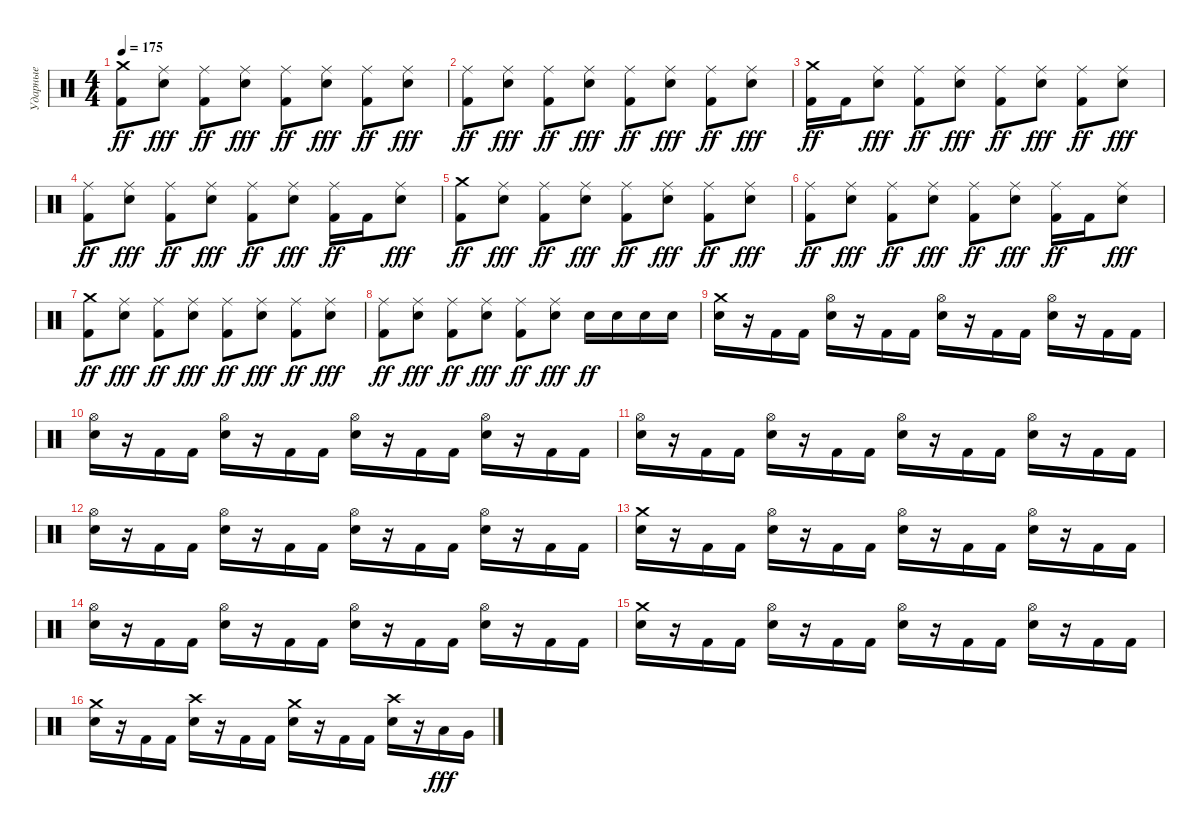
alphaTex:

\track ("Ударные" "Ударные") {instrument percussion}
\staff {score}
\articulation defaults
\ts (4 4)
\tempo 175
\clef neutral
\ks c
("Kick (hit) 2" "Crash medium (hit)").8{dy ff} ("Electric Snare (hit)" "Ride (middle)").8{dy fff} ("Kick (hit) 2" "Ride (middle)").8{dy ff} ("Electric Snare (hit)" "Ride (middle)").8{dy fff} ("Kick (hit) 2" "Ride (middle)").8{dy ff} ("Electric Snare (hit)" "Ride (middle)").8{dy fff} ("Kick (hit) 2" "Ride (middle)").8{dy ff} ("Electric Snare (hit)" "Ride (middle)").8{dy fff} |
("Kick (hit) 2" "Ride (middle)").8{dy ff} ("Electric Snare (hit)" "Ride (middle)").8{dy fff} ("Kick (hit) 2" "Ride (middle)").8{dy ff} ("Electric Snare (hit)" "Ride (middle)").8{dy fff} ("Kick (hit) 2" "Ride (middle)").8{dy ff} ("Electric Snare (hit)" "Ride (middle)").8{dy fff} ("Kick (hit) 2" "Ride (middle)").8{dy ff} ("Electric Snare (hit)" "Ride (middle)").8{dy fff} |
("Kick (hit) 2" "Crash medium (hit)").16{dy ff} "Kick (hit) 2".16 ("Electric Snare (hit)" "Ride (middle)").8{dy fff} ("Kick (hit) 2" "Ride (middle)").8{dy ff} ("Electric Snare (hit)" "Ride (middle)").8{dy fff} ("Kick (hit) 2" "Ride (middle)").8{dy ff} ("Electric Snare (hit)" "Ride (middle)").8{dy fff} ("Kick (hit) 2" "Ride (middle)").8{dy ff} ("Electric Snare (hit)" "Ride (middle)").8{dy fff} |
("Kick (hit) 2" "Ride (middle)").8{dy ff} ("Electric Snare (hit)" "Ride (middle)").8{dy fff} ("Kick (hit) 2" "Ride (middle)").8{dy ff} ("Electric Snare (hit)" "Ride (middle)").8{dy fff} ("Kick (hit) 2" "Ride (middle)").8{dy ff} ("Electric Snare (hit)" "Ride (middle)").8{dy fff} ("Kick (hit) 2" "Ride (middle)").16{dy ff} "Kick (hit) 2".16 ("Electric Snare (hit)" "Ride (middle)").8{dy fff} |
("Kick (hit) 2" "Crash medium (hit)").8{dy ff} ("Electric Snare (hit)" "Ride (middle)").8{dy fff} ("Kick (hit) 2" "Ride (middle)").8{dy ff} ("Electric Snare (hit)" "Ride (middle)").8{dy fff} ("Kick (hit) 2" "Ride (middle)").8{dy ff} ("Electric Snare (hit)" "Ride (middle)").8{dy fff} ("Kick (hit) 2" "Ride (middle)").8{dy ff} ("Electric Snare (hit)" "Ride (middle)").8{dy fff} |
("Kick (hit) 2" "Ride (middle)").8{dy ff} ("Electric Snare (hit)" "Ride (middle)").8{dy fff} ("Kick (hit) 2" "Ride (middle)").8{dy ff} ("Electric Snare (hit)" "Ride (middle)").8{dy fff} ("Kick (hit) 2" "Ride (middle)").8{dy ff} ("Electric Snare (hit)" "Ride (middle)").8{dy fff} ("Kick (hit) 2" "Ride (middle)").16{dy ff} "Kick (hit) 2".16 ("Electric Snare (hit)" "Ride (middle)").8{dy fff} |
("Kick (hit) 2" "Crash medium (hit)").8{dy ff} ("Electric Snare (hit)" "Ride (middle)").8{dy fff} ("Kick (hit) 2" "Ride (middle)").8{dy ff} ("Electric Snare (hit)" "Ride (middle)").8{dy fff} ("Kick (hit) 2" "Ride (middle)").8{dy ff} ("Electric Snare (hit)" "Ride (middle)").8{dy fff} ("Kick (hit) 2" "Ride (middle)").8{dy ff} ("Electric Snare (hit)" "Ride (middle)").8{dy fff} |
("Kick (hit) 2" "Ride (middle)").8{dy ff} ("Electric Snare (hit)" "Ride (middle)").8{dy fff} ("Kick (hit) 2" "Ride (middle)").8{dy ff} ("Electric Snare (hit)" "Ride (middle)").8{dy fff} ("Kick (hit) 2" "Ride (middle)").8{dy ff} ("Electric Snare (hit)" "Ride (middle)").8{dy fff} "Electric Snare (hit)".16{dy ff} "Electric Snare (hit)".16 "Electric Snare (hit)".16 "Electric Snare (hit)".16 |
("Electric Snare (hit)" "Crash medium (hit)").16 r.16 "Kick (hit) 2".16 "Kick (hit) 2".16 ("Electric Snare (hit)" "Hi-Hat (open)").16 r.16 "Kick (hit) 2".16 "Kick (hit) 2".16 ("Electric Snare (hit)" "Hi-Hat (open)").16 r.16 "Kick (hit) 2".16 "Kick (hit) 2".16 ("Electric Snare (hit)" "Hi-Hat (open)").16 r.16 "Kick (hit) 2".16 "Kick (hit) 2".16 |
("Electric Snare (hit)" "Hi-Hat (open)").16 r.16 "Kick (hit) 2".16 "Kick (hit) 2".16 ("Electric Snare (hit)" "Hi-Hat (open)").16 r.16 "Kick (hit) 2".16 "Kick (hit) 2".16 ("Electric Snare (hit)" "Hi-Hat (open)").16 r.16 "Kick (hit) 2".16 "Kick (hit) 2".16 ("Electric Snare (hit)" "Hi-Hat (open)").16 r.16 "Kick (hit) 2".16 "Kick (hit) 2".16 |
("Electric Snare (hit)" "Hi-Hat (open)").16 r.16 "Kick (hit) 2".16 "Kick (hit) 2".16 ("Electric Snare (hit)" "Hi-Hat (open)").16 r.16 "Kick (hit) 2".16 "Kick (hit) 2".16 ("Electric Snare (hit)" "Hi-Hat (open)").16 r.16 "Kick (hit) 2".16 "Kick (hit) 2".16 ("Electric Snare (hit)" "Hi-Hat (open)").16 r.16 "Kick (hit) 2".16 "Kick (hit) 2".16 |
("Electric Snare (hit)" "Hi-Hat (open)").16 r.16 "Kick (hit) 2".16 "Kick (hit) 2".16 ("Electric Snare (hit)" "Hi-Hat (open)").16 r.16 "Kick (hit) 2".16 "Kick (hit) 2".16 ("Electric Snare (hit)" "Hi-Hat (open)").16 r.16 "Kick (hit) 2".16 "Kick (hit) 2".16 ("Electric Snare (hit)" "Hi-Hat (open)").16 r.16 "Kick (hit) 2".16 "Kick (hit) 2".16 |
("Electric Snare (hit)" "Crash medium (hit)").16 r.16 "Kick (hit) 2".16 "Kick (hit) 2".16 ("Electric Snare (hit)" "Hi-Hat (open)").16 r.16 "Kick (hit) 2".16 "Kick (hit) 2".16 ("Electric Snare (hit)" "Hi-Hat (open)").16 r.16 "Kick (hit) 2".16 "Kick (hit) 2".16 ("Electric Snare (hit)" "Hi-Hat (open)").16 r.16 "Kick (hit) 2".16 "Kick (hit) 2".16 |
("Electric Snare (hit)" "Hi-Hat (open)").16 r.16 "Kick (hit) 2".16 "Kick (hit) 2".16 ("Electric Snare (hit)" "Hi-Hat (open)").16 r.16 "Kick (hit) 2".16 "Kick (hit) 2".16 ("Electric Snare (hit)" "Hi-Hat (open)").16 r.16 "Kick (hit) 2".16 "Kick (hit) 2".16 ("Electric Snare (hit)" "Hi-Hat (open)").16 r.16 "Kick (hit) 2".16 "Kick (hit) 2".16 |
("Electric Snare (hit)" "Crash medium (hit)").16 r.16 "Kick (hit) 2".16 "Kick (hit) 2".16 ("Electric Snare (hit)" "Hi-Hat (open)").16 r.16 "Kick (hit) 2".16 "Kick (hit) 2".16 ("Electric Snare (hit)" "Hi-Hat (open)").16 r.16 "Kick (hit) 2".16 "Kick (hit) 2".16 ("Electric Snare (hit)" "Hi-Hat (open)").16 r.16 "Kick (hit) 2".16 "Kick (hit) 2".16 |
("Electric Snare (hit)" "Crash medium (hit)").16 r.16 "Kick (hit) 2".16 "Kick (hit) 2".16 ("Electric Snare (hit)" "Crash high (hit)").16 r.16 "Kick (hit) 2".16 "Kick (hit) 2".16 ("Electric Snare (hit)" "Crash medium (hit)").16 r.16 "Kick (hit) 2".16 "Kick (hit) 2".16 ("Electric Snare (hit)" "Crash high (hit)").16 r.16 "Low Tom (hit)".16{dy fff} "Very Low Tom (hit)".16
